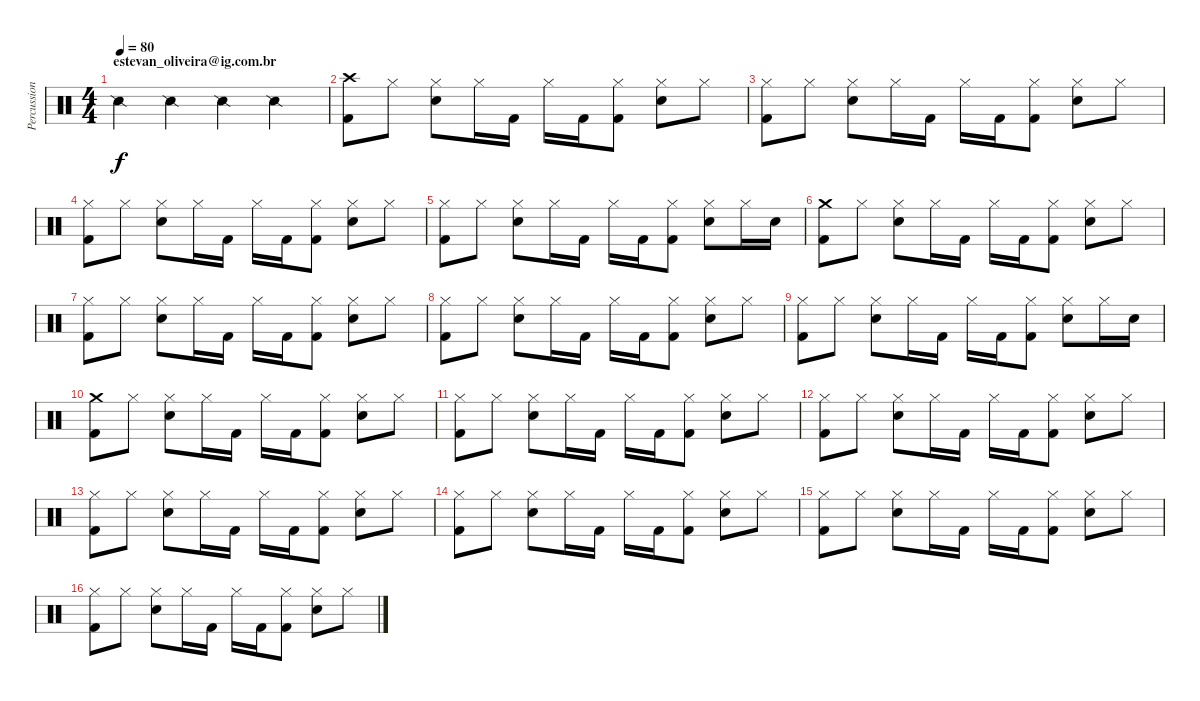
\track ("Percussion" "Percussion") {instrument percussion}
\staff {score}
\articulation defaults
\ts (4 4)
\section ("" "estevan_oliveira@ig.com.br")
\tempo 80
\clef neutral
\ks c "Snare (side stick) 2".4{dy f} "Snare (side stick) 2".4 "Snare (side stick) 2".4 "Snare (side stick) 2".4
|
("Crash high (hit)" "Kick (hit) 2").8 "Hi-Hat (closed)".8 ("Hi-Hat (closed)" "Snare (hit) 2").8 "Hi-Hat (closed)".16 "Kick (hit) 2".16 "Hi-Hat (closed)".16 "Kick (hit) 2".16 ("Hi-Hat (closed)" "Kick (hit) 2").8 ("Hi-Hat (closed)" "Snare (hit) 2").8 "Hi-Hat (closed)".8 |
("Hi-Hat (closed)" "Kick (hit) 2").8 "Hi-Hat (closed)".8 ("Hi-Hat (closed)" "Snare (hit) 2").8 "Hi-Hat (closed)".16 "Kick (hit) 2".16 "Hi-Hat (closed)".16 "Kick (hit) 2".16 ("Hi-Hat (closed)" "Kick (hit) 2").8 ("Hi-Hat (closed)" "Snare (hit) 2").8 "Hi-Hat (closed)".8 |
("Hi-Hat (closed)" "Kick (hit) 2").8 "Hi-Hat (closed)".8 ("Hi-Hat (closed)" "Snare (hit) 2").8 "Hi-Hat (closed)".16 "Kick (hit) 2".16 "Hi-Hat (closed)".16 "Kick (hit) 2".16 ("Hi-Hat (closed)" "Kick (hit) 2").8 ("Hi-Hat (closed)" "Snare (hit) 2").8 "Hi-Hat (closed)".8 |
("Hi-Hat (closed)" "Kick (hit) 2").8 "Hi-Hat (closed)".8 ("Hi-Hat (closed)" "Snare (hit) 2").8 "Hi-Hat (closed)".16 "Kick (hit) 2".16 "Hi-Hat (closed)".16 "Kick (hit) 2".16 ("Hi-Hat (closed)" "Kick (hit) 2").8 ("Hi-Hat (closed)" "Snare (hit) 2").8 "Hi-Hat (closed)".16 "Snare (hit) 2".16 |
("Crash medium (hit)" "Kick (hit) 2").8 "Hi-Hat (closed)".8 ("Hi-Hat (closed)" "Snare (hit) 2").8 "Hi-Hat (closed)".16 "Kick (hit) 2".16 "Hi-Hat (closed)".16 "Kick (hit) 2".16 ("Hi-Hat (closed)" "Kick (hit) 2").8 ("Hi-Hat (closed)" "Snare (hit) 2").8 "Hi-Hat (closed)".8 |
("Hi-Hat (closed)" "Kick (hit) 2").8 "Hi-Hat (closed)".8 ("Hi-Hat (closed)" "Snare (hit) 2").8 "Hi-Hat (closed)".16 "Kick (hit) 2".16 "Hi-Hat (closed)".16 "Kick (hit) 2".16 ("Hi-Hat (closed)" "Kick (hit) 2").8 ("Hi-Hat (closed)" "Snare (hit) 2").8 "Hi-Hat (closed)".8 |
("Hi-Hat (closed)" "Kick (hit) 2").8 "Hi-Hat (closed)".8 ("Hi-Hat (closed)" "Snare (hit) 2").8 "Hi-Hat (closed)".16 "Kick (hit) 2".16 "Hi-Hat (closed)".16 "Kick (hit) 2".16 ("Hi-Hat (closed)" "Kick (hit) 2").8 ("Hi-Hat (closed)" "Snare (hit) 2").8 "Hi-Hat (closed)".8 |
("Hi-Hat (closed)" "Kick (hit) 2").8 "Hi-Hat (closed)".8 ("Hi-Hat (closed)" "Snare (hit) 2").8 "Hi-Hat (closed)".16 "Kick (hit) 2".16 "Hi-Hat (closed)".16 "Kick (hit) 2".16 ("Hi-Hat (closed)" "Kick (hit) 2").8 ("Hi-Hat (closed)" "Snare (hit) 2").8 "Hi-Hat (closed)".16 "Snare (hit) 2".16 |
("Crash medium (hit)" "Kick (hit) 2").8 "Hi-Hat (closed)".8 ("Hi-Hat (closed)" "Snare (hit) 2").8 "Hi-Hat (closed)".16 "Kick (hit) 2".16 "Hi-Hat (closed)".16 "Kick (hit) 2".16 ("Hi-Hat (closed)" "Kick (hit) 2").8 ("Hi-Hat (closed)" "Snare (hit) 2").8 "Hi-Hat (closed)".8 |
("Hi-Hat (closed)" "Kick (hit) 2").8 "Hi-Hat (closed)".8 ("Hi-Hat (closed)" "Snare (hit) 2").8 "Hi-Hat (closed)".16 "Kick (hit) 2".16 "Hi-Hat (closed)".16 "Kick (hit) 2".16 ("Hi-Hat (closed)" "Kick (hit) 2").8 ("Hi-Hat (closed)" "Snare (hit) 2").8 "Hi-Hat (closed)".8 |
("Hi-Hat (closed)" "Kick (hit) 2").8 "Hi-Hat (closed)".8 ("Hi-Hat (closed)" "Snare (hit) 2").8 "Hi-Hat (closed)".16 "Kick (hit) 2".16 "Hi-Hat (closed)".16 "Kick (hit) 2".16 ("Hi-Hat (closed)" "Kick (hit) 2").8 ("Hi-Hat (closed)" "Snare (hit) 2").8 "Hi-Hat (closed)".8 |
("Hi-Hat (closed)" "Kick (hit) 2").8 "Hi-Hat (closed)".8 ("Hi-Hat (closed)" "Snare (hit) 2").8 "Hi-Hat (closed)".16 "Kick (hit) 2".16 "Hi-Hat (closed)".16 "Kick (hit) 2".16 ("Hi-Hat (closed)" "Kick (hit) 2").8 ("Hi-Hat (closed)" "Snare (hit) 2").8 "Hi-Hat (closed)".8 |
("Hi-Hat (closed)" "Kick (hit) 2").8 "Hi-Hat (closed)".8 ("Hi-Hat (closed)" "Snare (hit) 2").8 "Hi-Hat (closed)".16 "Kick (hit) 2".16 "Hi-Hat (closed)".16 "Kick (hit) 2".16 ("Hi-Hat (closed)" "Kick (hit) 2").8 ("Hi-Hat (closed)" "Snare (hit) 2").8 "Hi-Hat (closed)".8 |
("Hi-Hat (closed)" "Kick (hit) 2").8 "Hi-Hat (closed)".8 ("Hi-Hat (closed)" "Snare (hit) 2").8 "Hi-Hat (closed)".16 "Kick (hit) 2".16 "Hi-Hat (closed)".16 "Kick (hit) 2".16 ("Hi-Hat (closed)" "Kick (hit) 2").8 ("Hi-Hat (closed)" "Snare (hit) 2").8 "Hi-Hat (closed)".8 |
("Hi-Hat (closed)" "Kick (hit) 2").8 "Hi-Hat (closed)".8 ("Hi-Hat (closed)" "Snare (hit) 2").8 "Hi-Hat (closed)".16 "Kick (hit) 2".16 "Hi-Hat (closed)".16 "Kick (hit) 2".16 ("Hi-Hat (closed)" "Kick (hit) 2").8 ("Hi-Hat (closed)" "Snare (hit) 2").8 "Hi-Hat (closed)".8
